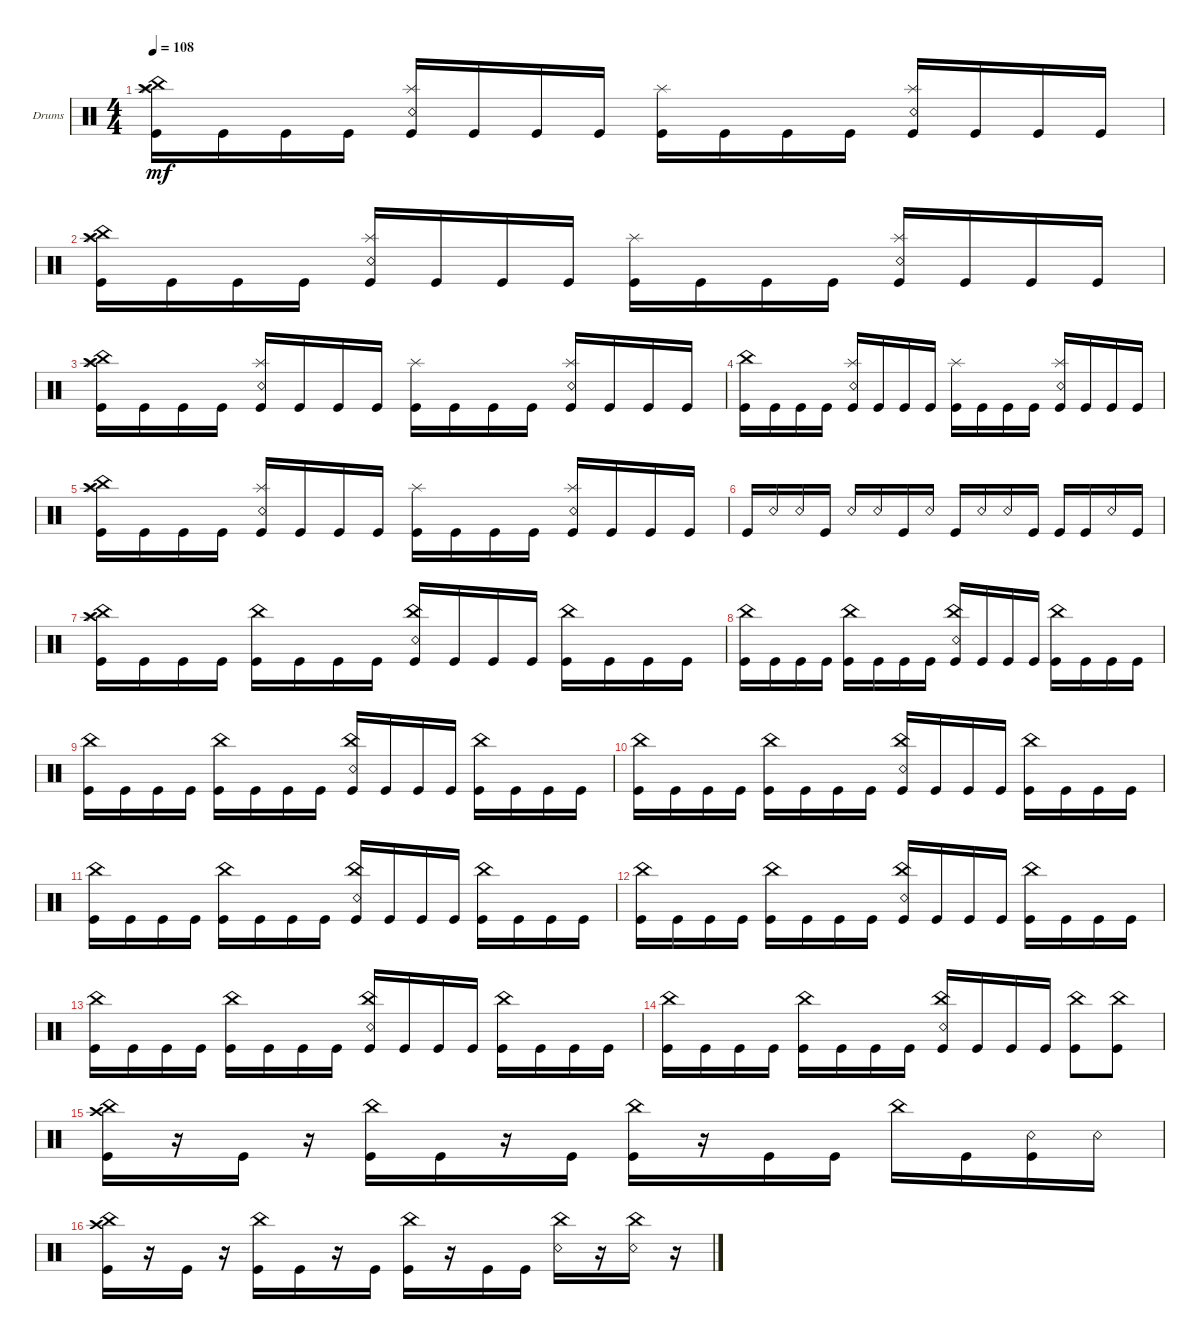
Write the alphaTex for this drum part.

\defaultSystemsLayout 4
\bracketExtendMode groupsimilarinstruments
\firstSystemTrackNameOrientation horizontal
\otherSystemsTrackNameOrientation horizontal
\track ("Drumkit" "Drums") {instrument percussion}
\staff {score}
\articulation defaults
\ts (4 4)
\tempo 108
\clef neutral
\ks c
("Kick (hit)" "China (hit)" "Splash (hit)" "Crash high (hit)").16{dy mf} "Kick (hit)".16 "Kick (hit)".16 "Kick (hit)".16 ("Kick (hit)" "Snare (rim shot)" "Splash (hit)").16 "Kick (hit)".16 "Kick (hit)".16 "Kick (hit)".16 ("Kick (hit)" "Splash (hit)").16 "Kick (hit)".16 "Kick (hit)".16 "Kick (hit)".16 ("Kick (hit)" "Snare (rim shot)" "Splash (hit)").16 "Kick (hit)".16 "Kick (hit)".16 "Kick (hit)".16 |
("Kick (hit)" "China (hit)" "Splash (hit)" "Crash high (hit)").16 "Kick (hit)".16 "Kick (hit)".16 "Kick (hit)".16 ("Kick (hit)" "Snare (rim shot)" "Splash (hit)").16 "Kick (hit)".16 "Kick (hit)".16 "Kick (hit)".16 ("Kick (hit)" "Splash (hit)").16 "Kick (hit)".16 "Kick (hit)".16 "Kick (hit)".16 ("Kick (hit)" "Snare (rim shot)" "Splash (hit)").16 "Kick (hit)".16 "Kick (hit)".16 "Kick (hit)".16 |
("Kick (hit)" "China (hit)" "Splash (hit)" "Crash high (hit)").16 "Kick (hit)".16 "Kick (hit)".16 "Kick (hit)".16 ("Kick (hit)" "Snare (rim shot)" "Splash (hit)").16 "Kick (hit)".16 "Kick (hit)".16 "Kick (hit)".16 ("Kick (hit)" "Splash (hit)").16 "Kick (hit)".16 "Kick (hit)".16 "Kick (hit)".16 ("Kick (hit)" "Snare (rim shot)" "Splash (hit)").16 "Kick (hit)".16 "Kick (hit)".16 "Kick (hit)".16 |
("Kick (hit)" "China (hit)").16 "Kick (hit)".16 "Kick (hit)".16 "Kick (hit)".16 ("Kick (hit)" "Snare (rim shot)" "Splash (hit)").16 "Kick (hit)".16 "Kick (hit)".16 "Kick (hit)".16 ("Kick (hit)" "Splash (hit)").16 "Kick (hit)".16 "Kick (hit)".16 "Kick (hit)".16 ("Kick (hit)" "Snare (rim shot)" "Splash (hit)").16 "Kick (hit)".16 "Kick (hit)".16 "Kick (hit)".16 |
("Kick (hit)" "China (hit)" "Splash (hit)" "Crash high (hit)").16 "Kick (hit)".16 "Kick (hit)".16 "Kick (hit)".16 ("Kick (hit)" "Snare (rim shot)" "Splash (hit)").16 "Kick (hit)".16 "Kick (hit)".16 "Kick (hit)".16 ("Kick (hit)" "Splash (hit)").16 "Kick (hit)".16 "Kick (hit)".16 "Kick (hit)".16 ("Kick (hit)" "Snare (rim shot)" "Splash (hit)").16 "Kick (hit)".16 "Kick (hit)".16 "Kick (hit)".16 |
"Kick (hit)".16 "Snare (rim shot)".16 "Snare (rim shot)".16 "Kick (hit)".16 "Snare (rim shot)".16 "Snare (rim shot)".16 "Kick (hit)".16 "Snare (rim shot)".16 "Kick (hit)".16 "Snare (rim shot)".16 "Snare (rim shot)".16 "Kick (hit)".16 "Kick (hit)".16 "Kick (hit)".16 "Snare (rim shot)".16 "Kick (hit)".16 |
("Kick (hit)" "Splash (hit)" "Crash high (hit)" "China (hit)").16 "Kick (hit)".16 "Kick (hit)".16 "Kick (hit)".16 ("Kick (hit)" "China (hit)").16 "Kick (hit)".16 "Kick (hit)".16 "Kick (hit)".16 ("Kick (hit)" "Snare (rim shot)" "China (hit)").16 "Kick (hit)".16 "Kick (hit)".16 "Kick (hit)".16 ("Kick (hit)" "China (hit)").16 "Kick (hit)".16 "Kick (hit)".16 "Kick (hit)".16 |
("Kick (hit)" "China (hit)").16 "Kick (hit)".16 "Kick (hit)".16 "Kick (hit)".16 ("Kick (hit)" "China (hit)").16 "Kick (hit)".16 "Kick (hit)".16 "Kick (hit)".16 ("Kick (hit)" "Snare (rim shot)" "China (hit)").16 "Kick (hit)".16 "Kick (hit)".16 "Kick (hit)".16 ("Kick (hit)" "China (hit)").16 "Kick (hit)".16 "Kick (hit)".16 "Kick (hit)".16 |
("Kick (hit)" "China (hit)").16 "Kick (hit)".16 "Kick (hit)".16 "Kick (hit)".16 ("Kick (hit)" "China (hit)").16 "Kick (hit)".16 "Kick (hit)".16 "Kick (hit)".16 ("Kick (hit)" "Snare (rim shot)" "China (hit)").16 "Kick (hit)".16 "Kick (hit)".16 "Kick (hit)".16 ("Kick (hit)" "China (hit)").16 "Kick (hit)".16 "Kick (hit)".16 "Kick (hit)".16 |
("Kick (hit)" "China (hit)").16 "Kick (hit)".16 "Kick (hit)".16 "Kick (hit)".16 ("Kick (hit)" "China (hit)").16 "Kick (hit)".16 "Kick (hit)".16 "Kick (hit)".16 ("Kick (hit)" "Snare (rim shot)" "China (hit)").16 "Kick (hit)".16 "Kick (hit)".16 "Kick (hit)".16 ("Kick (hit)" "China (hit)").16 "Kick (hit)".16 "Kick (hit)".16 "Kick (hit)".16 |
("Kick (hit)" "China (hit)").16 "Kick (hit)".16 "Kick (hit)".16 "Kick (hit)".16 ("Kick (hit)" "China (hit)").16 "Kick (hit)".16 "Kick (hit)".16 "Kick (hit)".16 ("Kick (hit)" "Snare (rim shot)" "China (hit)").16 "Kick (hit)".16 "Kick (hit)".16 "Kick (hit)".16 ("Kick (hit)" "China (hit)").16 "Kick (hit)".16 "Kick (hit)".16 "Kick (hit)".16 |
("Kick (hit)" "China (hit)").16 "Kick (hit)".16 "Kick (hit)".16 "Kick (hit)".16 ("Kick (hit)" "China (hit)").16 "Kick (hit)".16 "Kick (hit)".16 "Kick (hit)".16 ("Kick (hit)" "Snare (rim shot)" "China (hit)").16 "Kick (hit)".16 "Kick (hit)".16 "Kick (hit)".16 ("Kick (hit)" "China (hit)").16 "Kick (hit)".16 "Kick (hit)".16 "Kick (hit)".16 |
("Kick (hit)" "China (hit)").16 "Kick (hit)".16 "Kick (hit)".16 "Kick (hit)".16 ("Kick (hit)" "China (hit)").16 "Kick (hit)".16 "Kick (hit)".16 "Kick (hit)".16 ("Kick (hit)" "Snare (rim shot)" "China (hit)").16 "Kick (hit)".16 "Kick (hit)".16 "Kick (hit)".16 ("Kick (hit)" "China (hit)").16 "Kick (hit)".16 "Kick (hit)".16 "Kick (hit)".16 |
("Kick (hit)" "China (hit)").16 "Kick (hit)".16 "Kick (hit)".16 "Kick (hit)".16 ("Kick (hit)" "China (hit)").16 "Kick (hit)".16 "Kick (hit)".16 "Kick (hit)".16 ("Kick (hit)" "Snare (rim shot)" "China (hit)").16 "Kick (hit)".16 "Kick (hit)".16 "Kick (hit)".16 ("Kick (hit)" "China (hit)").8 ("Kick (hit)" "China (hit)").8 |
("Kick (hit)" "China (hit)" "Crash high (hit)").16 r.16 "Kick (hit)".16 r.16 ("Kick (hit)" "China (hit)").16 "Kick (hit)".16 r.16 "Kick (hit)".16 ("Kick (hit)" "China (hit)").16 r.16 "Kick (hit)".16 "Kick (hit)".16 "China (hit)".16 "Kick (hit)".16 ("Snare (rim shot)" "Kick (hit)").16 "Snare (rim shot)".16 |
("Kick (hit)" "China (hit)" "Crash high (hit)").16 r.16 "Kick (hit)".16 r.16 ("Kick (hit)" "China (hit)").16 "Kick (hit)".16 r.16 "Kick (hit)".16 ("Kick (hit)" "China (hit)").16 r.16 "Kick (hit)".16 "Kick (hit)".16 ("China (hit)" "Snare (rim shot)").16 r.16 ("Snare (rim shot)" "China (hit)").16 r.16
